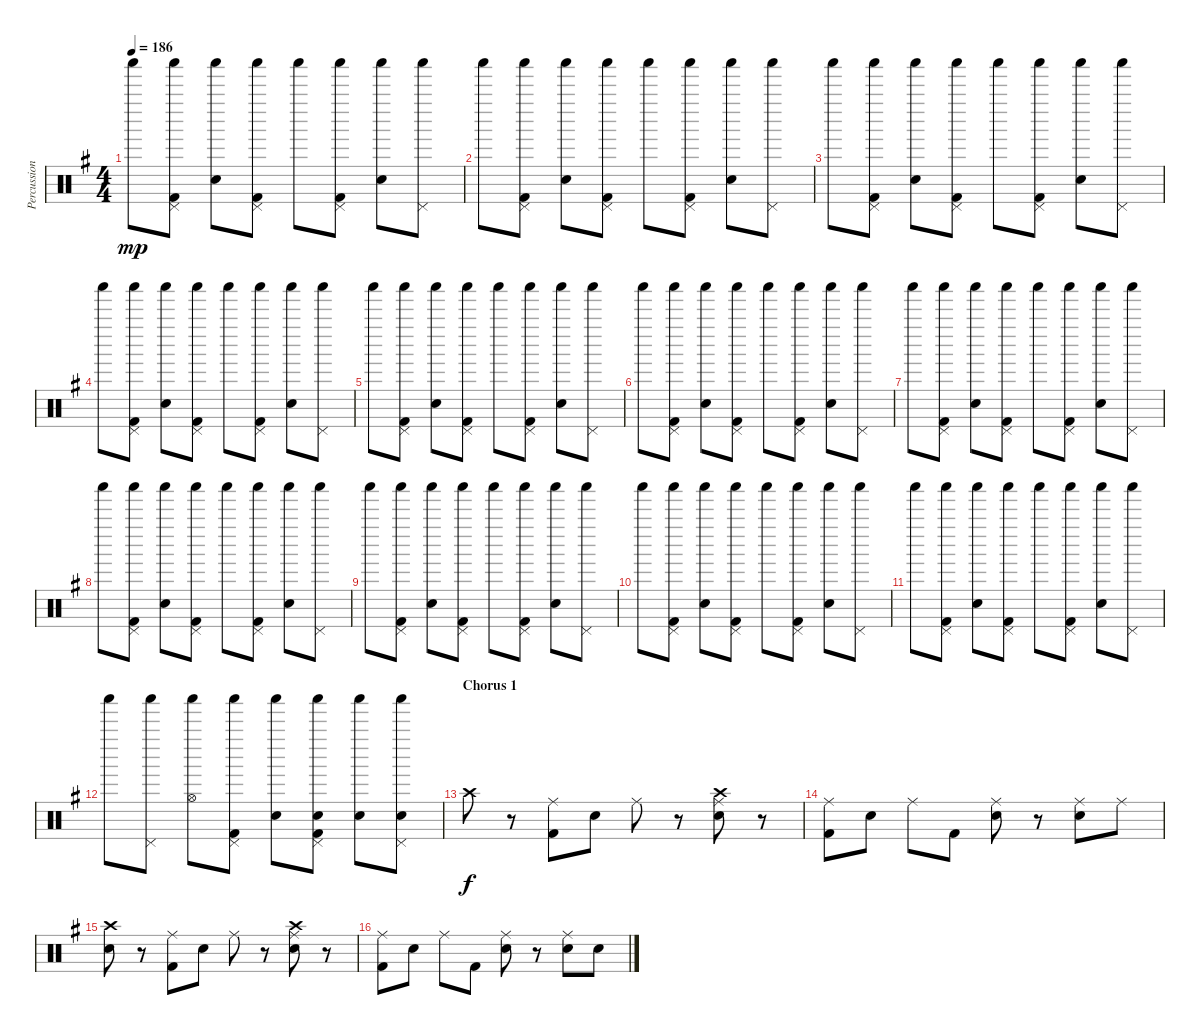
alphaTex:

\track ("Percussion" "Percussion") {instrument percussion}
\staff {score}
\articulation defaults
\ts (4 4)
\tempo 186
\clef neutral
\ks g "Shaker (hit)".8{dy mp}
("Shaker (hit)" "Pedal Hi-Hat (hit)" "Kick (hit) 2").8 ("Shaker (hit)" "Electric Snare (hit)").8 ("Shaker (hit)" "Pedal Hi-Hat (hit)" "Kick (hit) 2").8 "Shaker (hit)".8 ("Shaker (hit)" "Pedal Hi-Hat (hit)" "Kick (hit) 2").8 ("Shaker (hit)" "Electric Snare (hit)").8 ("Shaker (hit)" "Pedal Hi-Hat (hit)").8 |
"Shaker (hit)".8 ("Shaker (hit)" "Pedal Hi-Hat (hit)" "Kick (hit) 2").8 ("Shaker (hit)" "Electric Snare (hit)").8 ("Shaker (hit)" "Pedal Hi-Hat (hit)" "Kick (hit) 2").8 "Shaker (hit)".8 ("Shaker (hit)" "Pedal Hi-Hat (hit)" "Kick (hit) 2").8 ("Shaker (hit)" "Electric Snare (hit)").8 ("Shaker (hit)" "Pedal Hi-Hat (hit)").8 |
"Shaker (hit)".8 ("Shaker (hit)" "Pedal Hi-Hat (hit)" "Kick (hit) 2").8 ("Shaker (hit)" "Electric Snare (hit)").8 ("Shaker (hit)" "Pedal Hi-Hat (hit)" "Kick (hit) 2").8 "Shaker (hit)".8 ("Shaker (hit)" "Pedal Hi-Hat (hit)" "Kick (hit) 2").8 ("Shaker (hit)" "Electric Snare (hit)").8 ("Shaker (hit)" "Pedal Hi-Hat (hit)").8 |
"Shaker (hit)".8 ("Shaker (hit)" "Pedal Hi-Hat (hit)" "Kick (hit) 2").8 ("Shaker (hit)" "Electric Snare (hit)").8 ("Shaker (hit)" "Pedal Hi-Hat (hit)" "Kick (hit) 2").8 "Shaker (hit)".8 ("Shaker (hit)" "Pedal Hi-Hat (hit)" "Kick (hit) 2").8 ("Shaker (hit)" "Electric Snare (hit)").8 ("Shaker (hit)" "Pedal Hi-Hat (hit)").8 |
"Shaker (hit)".8 ("Shaker (hit)" "Pedal Hi-Hat (hit)" "Kick (hit) 2").8 ("Shaker (hit)" "Electric Snare (hit)").8 ("Shaker (hit)" "Pedal Hi-Hat (hit)" "Kick (hit) 2").8 "Shaker (hit)".8 ("Shaker (hit)" "Pedal Hi-Hat (hit)" "Kick (hit) 2").8 ("Shaker (hit)" "Electric Snare (hit)").8 ("Shaker (hit)" "Pedal Hi-Hat (hit)").8 |
"Shaker (hit)".8 ("Shaker (hit)" "Pedal Hi-Hat (hit)" "Kick (hit) 2").8 ("Shaker (hit)" "Electric Snare (hit)").8 ("Shaker (hit)" "Pedal Hi-Hat (hit)" "Kick (hit) 2").8 "Shaker (hit)".8 ("Shaker (hit)" "Pedal Hi-Hat (hit)" "Kick (hit) 2").8 ("Shaker (hit)" "Electric Snare (hit)").8 ("Shaker (hit)" "Pedal Hi-Hat (hit)").8 |
"Shaker (hit)".8 ("Shaker (hit)" "Pedal Hi-Hat (hit)" "Kick (hit) 2").8 ("Shaker (hit)" "Electric Snare (hit)").8 ("Shaker (hit)" "Pedal Hi-Hat (hit)" "Kick (hit) 2").8 "Shaker (hit)".8 ("Shaker (hit)" "Pedal Hi-Hat (hit)" "Kick (hit) 2").8 ("Shaker (hit)" "Electric Snare (hit)").8 ("Shaker (hit)" "Pedal Hi-Hat (hit)").8 |
"Shaker (hit)".8 ("Shaker (hit)" "Pedal Hi-Hat (hit)" "Kick (hit) 2").8 ("Shaker (hit)" "Electric Snare (hit)").8 ("Shaker (hit)" "Pedal Hi-Hat (hit)" "Kick (hit) 2").8 "Shaker (hit)".8 ("Shaker (hit)" "Pedal Hi-Hat (hit)" "Kick (hit) 2").8 ("Shaker (hit)" "Electric Snare (hit)").8 ("Shaker (hit)" "Pedal Hi-Hat (hit)").8 |
"Shaker (hit)".8 ("Shaker (hit)" "Pedal Hi-Hat (hit)" "Kick (hit) 2").8 ("Shaker (hit)" "Electric Snare (hit)").8 ("Shaker (hit)" "Pedal Hi-Hat (hit)" "Kick (hit) 2").8 "Shaker (hit)".8 ("Shaker (hit)" "Pedal Hi-Hat (hit)" "Kick (hit) 2").8 ("Shaker (hit)" "Electric Snare (hit)").8 ("Shaker (hit)" "Pedal Hi-Hat (hit)").8 |
"Shaker (hit)".8 ("Shaker (hit)" "Pedal Hi-Hat (hit)" "Kick (hit) 2").8 ("Shaker (hit)" "Electric Snare (hit)").8 ("Shaker (hit)" "Pedal Hi-Hat (hit)" "Kick (hit) 2").8 "Shaker (hit)".8 ("Shaker (hit)" "Pedal Hi-Hat (hit)" "Kick (hit) 2").8 ("Shaker (hit)" "Electric Snare (hit)").8 ("Shaker (hit)" "Pedal Hi-Hat (hit)").8 |
"Shaker (hit)".8 ("Shaker (hit)" "Pedal Hi-Hat (hit)" "Kick (hit) 2").8 ("Shaker (hit)" "Electric Snare (hit)").8 ("Shaker (hit)" "Pedal Hi-Hat (hit)" "Kick (hit) 2").8 "Shaker (hit)".8 ("Shaker (hit)" "Pedal Hi-Hat (hit)" "Kick (hit) 2").8 ("Shaker (hit)" "Electric Snare (hit)").8 ("Shaker (hit)" "Pedal Hi-Hat (hit)").8 |
"Shaker (hit)".8 ("Shaker (hit)" "Pedal Hi-Hat (hit)").8 ("Shaker (hit)" "Hi-Hat (open)").8 ("Shaker (hit)" "Pedal Hi-Hat (hit)" "Kick (hit) 2").8 ("Shaker (hit)" "Electric Snare (hit)").8 ("Shaker (hit)" "Pedal Hi-Hat (hit)" "Electric Snare (hit)" "Kick (hit) 2").8 ("Shaker (hit)" "Electric Snare (hit)").8 ("Shaker (hit)" "Pedal Hi-Hat (hit)" "Electric Snare (hit)").8 |
\section ("" "Chorus 1")
"Crash high (hit)".8{dy f} r.8 ("Ride (middle)" "Kick (hit) 2").8 "Electric Snare (hit)".8 "Ride (middle)".8 r.8 ("Ride (middle)" "Crash high (hit)" "Electric Snare (hit)").8 r.8 |
("Ride (middle)" "Kick (hit) 2").8 "Electric Snare (hit)".8 "Ride (middle)".8 "Kick (hit) 2".8 ("Ride (middle)" "Electric Snare (hit)").8 r.8 ("Ride (middle)" "Electric Snare (hit)").8 "Ride (middle)".8 |
("Crash high (hit)" "Electric Snare (hit)").8 r.8 ("Ride (middle)" "Kick (hit) 2").8 "Electric Snare (hit)".8 "Ride (middle)".8 r.8 ("Ride (middle)" "Crash high (hit)" "Electric Snare (hit)").8 r.8 |
("Ride (middle)" "Kick (hit) 2").8 "Electric Snare (hit)".8 "Ride (middle)".8 "Kick (hit) 2".8 ("Ride (middle)" "Electric Snare (hit)").8 r.8 ("Ride (middle)" "Electric Snare (hit)").8 "Electric Snare (hit)".8
